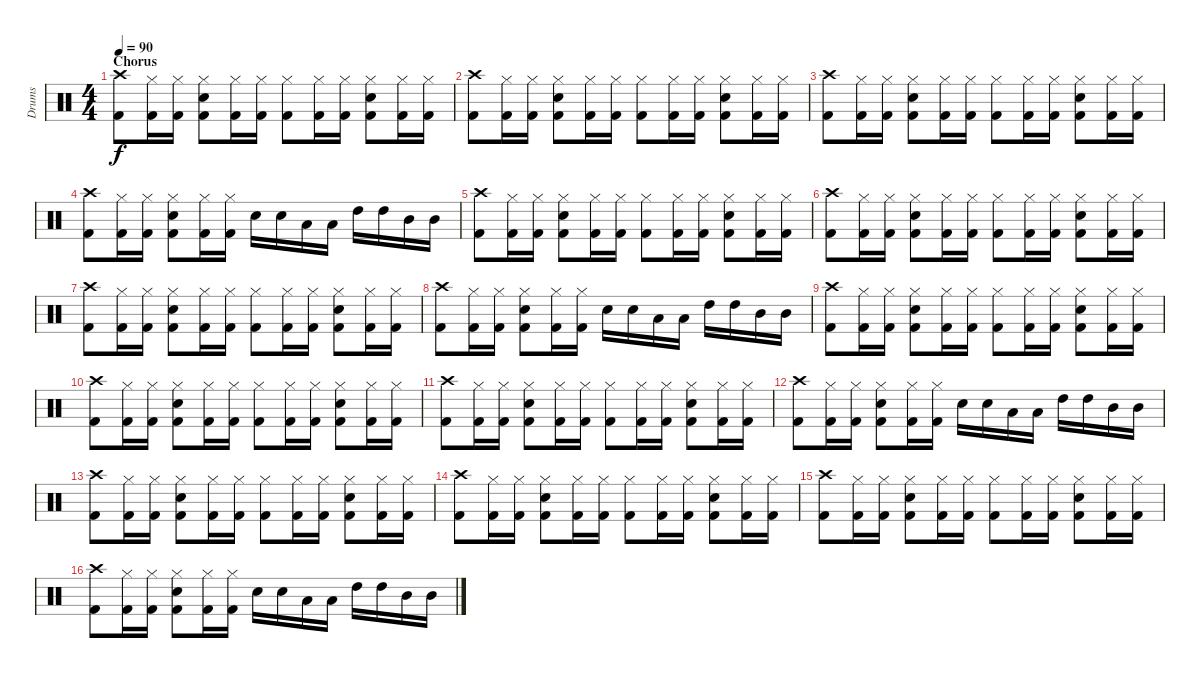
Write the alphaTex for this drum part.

\track ("Drums" "Drums") {instrument percussion}
\staff {score}
\articulation defaults
\ts (4 4)
\section ("" "Chorus")
\tempo 90
\clef neutral
\ks c
("Crash high (hit)" "Kick (hit) 2").8{dy f} ("Hi-Hat (closed)" "Kick (hit) 2").16 ("Hi-Hat (closed)" "Kick (hit) 2").16 ("Hi-Hat (closed)" "Kick (hit) 2" "Electric Snare (hit)").8 ("Hi-Hat (closed)" "Kick (hit) 2").16 ("Hi-Hat (closed)" "Kick (hit) 2").16 ("Hi-Hat (closed)" "Kick (hit) 2").8 ("Hi-Hat (closed)" "Kick (hit) 2").16 ("Hi-Hat (closed)" "Kick (hit) 2").16 ("Hi-Hat (closed)" "Kick (hit) 2" "Electric Snare (hit)").8 ("Hi-Hat (closed)" "Kick (hit) 2").16 ("Hi-Hat (closed)" "Kick (hit) 2").16 |
("Crash high (hit)" "Kick (hit) 2").8 ("Hi-Hat (closed)" "Kick (hit) 2").16 ("Hi-Hat (closed)" "Kick (hit) 2").16 ("Hi-Hat (closed)" "Kick (hit) 2" "Electric Snare (hit)").8 ("Hi-Hat (closed)" "Kick (hit) 2").16 ("Hi-Hat (closed)" "Kick (hit) 2").16 ("Hi-Hat (closed)" "Kick (hit) 2").8 ("Hi-Hat (closed)" "Kick (hit) 2").16 ("Hi-Hat (closed)" "Kick (hit) 2").16 ("Hi-Hat (closed)" "Kick (hit) 2" "Electric Snare (hit)").8 ("Hi-Hat (closed)" "Kick (hit) 2").16 ("Hi-Hat (closed)" "Kick (hit) 2").16 |
("Crash high (hit)" "Kick (hit) 2").8 ("Hi-Hat (closed)" "Kick (hit) 2").16 ("Hi-Hat (closed)" "Kick (hit) 2").16 ("Hi-Hat (closed)" "Kick (hit) 2" "Electric Snare (hit)").8 ("Hi-Hat (closed)" "Kick (hit) 2").16 ("Hi-Hat (closed)" "Kick (hit) 2").16 ("Hi-Hat (closed)" "Kick (hit) 2").8 ("Hi-Hat (closed)" "Kick (hit) 2").16 ("Hi-Hat (closed)" "Kick (hit) 2").16 ("Hi-Hat (closed)" "Kick (hit) 2" "Electric Snare (hit)").8 ("Hi-Hat (closed)" "Kick (hit) 2").16 ("Hi-Hat (closed)" "Kick (hit) 2").16 |
("Crash high (hit)" "Kick (hit) 2").8 ("Hi-Hat (closed)" "Kick (hit) 2").16 ("Hi-Hat (closed)" "Kick (hit) 2").16 ("Hi-Hat (closed)" "Kick (hit) 2" "Electric Snare (hit)").8 ("Hi-Hat (closed)" "Kick (hit) 2").16 ("Hi-Hat (closed)" "Kick (hit) 2").16 "Electric Snare (hit)".16 "Electric Snare (hit)".16 "Low Tom (hit)".16 "Low Tom (hit)".16 "High Tom (hit)".16 "High Tom (hit)".16 "Mid Tom (hit)".16 "Mid Tom (hit)".16 |
("Crash high (hit)" "Kick (hit) 2").8 ("Hi-Hat (closed)" "Kick (hit) 2").16 ("Hi-Hat (closed)" "Kick (hit) 2").16 ("Hi-Hat (closed)" "Kick (hit) 2" "Electric Snare (hit)").8 ("Hi-Hat (closed)" "Kick (hit) 2").16 ("Hi-Hat (closed)" "Kick (hit) 2").16 ("Hi-Hat (closed)" "Kick (hit) 2").8 ("Hi-Hat (closed)" "Kick (hit) 2").16 ("Hi-Hat (closed)" "Kick (hit) 2").16 ("Hi-Hat (closed)" "Kick (hit) 2" "Electric Snare (hit)").8 ("Hi-Hat (closed)" "Kick (hit) 2").16 ("Hi-Hat (closed)" "Kick (hit) 2").16 |
("Crash high (hit)" "Kick (hit) 2").8 ("Hi-Hat (closed)" "Kick (hit) 2").16 ("Hi-Hat (closed)" "Kick (hit) 2").16 ("Hi-Hat (closed)" "Kick (hit) 2" "Electric Snare (hit)").8 ("Hi-Hat (closed)" "Kick (hit) 2").16 ("Hi-Hat (closed)" "Kick (hit) 2").16 ("Hi-Hat (closed)" "Kick (hit) 2").8 ("Hi-Hat (closed)" "Kick (hit) 2").16 ("Hi-Hat (closed)" "Kick (hit) 2").16 ("Hi-Hat (closed)" "Kick (hit) 2" "Electric Snare (hit)").8 ("Hi-Hat (closed)" "Kick (hit) 2").16 ("Hi-Hat (closed)" "Kick (hit) 2").16 |
("Crash high (hit)" "Kick (hit) 2").8 ("Hi-Hat (closed)" "Kick (hit) 2").16 ("Hi-Hat (closed)" "Kick (hit) 2").16 ("Hi-Hat (closed)" "Kick (hit) 2" "Electric Snare (hit)").8 ("Hi-Hat (closed)" "Kick (hit) 2").16 ("Hi-Hat (closed)" "Kick (hit) 2").16 ("Hi-Hat (closed)" "Kick (hit) 2").8 ("Hi-Hat (closed)" "Kick (hit) 2").16 ("Hi-Hat (closed)" "Kick (hit) 2").16 ("Hi-Hat (closed)" "Kick (hit) 2" "Electric Snare (hit)").8 ("Hi-Hat (closed)" "Kick (hit) 2").16 ("Hi-Hat (closed)" "Kick (hit) 2").16 |
("Crash high (hit)" "Kick (hit) 2").8 ("Hi-Hat (closed)" "Kick (hit) 2").16 ("Hi-Hat (closed)" "Kick (hit) 2").16 ("Hi-Hat (closed)" "Kick (hit) 2" "Electric Snare (hit)").8 ("Hi-Hat (closed)" "Kick (hit) 2").16 ("Hi-Hat (closed)" "Kick (hit) 2").16 "Electric Snare (hit)".16 "Electric Snare (hit)".16 "Low Tom (hit)".16 "Low Tom (hit)".16 "High Tom (hit)".16 "High Tom (hit)".16 "Mid Tom (hit)".16 "Mid Tom (hit)".16 |
("Crash high (hit)" "Kick (hit) 2").8 ("Hi-Hat (closed)" "Kick (hit) 2").16 ("Hi-Hat (closed)" "Kick (hit) 2").16 ("Hi-Hat (closed)" "Kick (hit) 2" "Electric Snare (hit)").8 ("Hi-Hat (closed)" "Kick (hit) 2").16 ("Hi-Hat (closed)" "Kick (hit) 2").16 ("Hi-Hat (closed)" "Kick (hit) 2").8 ("Hi-Hat (closed)" "Kick (hit) 2").16 ("Hi-Hat (closed)" "Kick (hit) 2").16 ("Hi-Hat (closed)" "Kick (hit) 2" "Electric Snare (hit)").8 ("Hi-Hat (closed)" "Kick (hit) 2").16 ("Hi-Hat (closed)" "Kick (hit) 2").16 |
("Crash high (hit)" "Kick (hit) 2").8 ("Hi-Hat (closed)" "Kick (hit) 2").16 ("Hi-Hat (closed)" "Kick (hit) 2").16 ("Hi-Hat (closed)" "Kick (hit) 2" "Electric Snare (hit)").8 ("Hi-Hat (closed)" "Kick (hit) 2").16 ("Hi-Hat (closed)" "Kick (hit) 2").16 ("Hi-Hat (closed)" "Kick (hit) 2").8 ("Hi-Hat (closed)" "Kick (hit) 2").16 ("Hi-Hat (closed)" "Kick (hit) 2").16 ("Hi-Hat (closed)" "Kick (hit) 2" "Electric Snare (hit)").8 ("Hi-Hat (closed)" "Kick (hit) 2").16 ("Hi-Hat (closed)" "Kick (hit) 2").16 |
("Crash high (hit)" "Kick (hit) 2").8 ("Hi-Hat (closed)" "Kick (hit) 2").16 ("Hi-Hat (closed)" "Kick (hit) 2").16 ("Hi-Hat (closed)" "Kick (hit) 2" "Electric Snare (hit)").8 ("Hi-Hat (closed)" "Kick (hit) 2").16 ("Hi-Hat (closed)" "Kick (hit) 2").16 ("Hi-Hat (closed)" "Kick (hit) 2").8 ("Hi-Hat (closed)" "Kick (hit) 2").16 ("Hi-Hat (closed)" "Kick (hit) 2").16 ("Hi-Hat (closed)" "Kick (hit) 2" "Electric Snare (hit)").8 ("Hi-Hat (closed)" "Kick (hit) 2").16 ("Hi-Hat (closed)" "Kick (hit) 2").16 |
("Crash high (hit)" "Kick (hit) 2").8 ("Hi-Hat (closed)" "Kick (hit) 2").16 ("Hi-Hat (closed)" "Kick (hit) 2").16 ("Hi-Hat (closed)" "Kick (hit) 2" "Electric Snare (hit)").8 ("Hi-Hat (closed)" "Kick (hit) 2").16 ("Hi-Hat (closed)" "Kick (hit) 2").16 "Electric Snare (hit)".16 "Electric Snare (hit)".16 "Low Tom (hit)".16 "Low Tom (hit)".16 "High Tom (hit)".16 "High Tom (hit)".16 "Mid Tom (hit)".16 "Mid Tom (hit)".16 |
("Crash high (hit)" "Kick (hit) 2").8 ("Hi-Hat (closed)" "Kick (hit) 2").16 ("Hi-Hat (closed)" "Kick (hit) 2").16 ("Hi-Hat (closed)" "Kick (hit) 2" "Electric Snare (hit)").8 ("Hi-Hat (closed)" "Kick (hit) 2").16 ("Hi-Hat (closed)" "Kick (hit) 2").16 ("Hi-Hat (closed)" "Kick (hit) 2").8 ("Hi-Hat (closed)" "Kick (hit) 2").16 ("Hi-Hat (closed)" "Kick (hit) 2").16 ("Hi-Hat (closed)" "Kick (hit) 2" "Electric Snare (hit)").8 ("Hi-Hat (closed)" "Kick (hit) 2").16 ("Hi-Hat (closed)" "Kick (hit) 2").16 |
("Crash high (hit)" "Kick (hit) 2").8 ("Hi-Hat (closed)" "Kick (hit) 2").16 ("Hi-Hat (closed)" "Kick (hit) 2").16 ("Hi-Hat (closed)" "Kick (hit) 2" "Electric Snare (hit)").8 ("Hi-Hat (closed)" "Kick (hit) 2").16 ("Hi-Hat (closed)" "Kick (hit) 2").16 ("Hi-Hat (closed)" "Kick (hit) 2").8 ("Hi-Hat (closed)" "Kick (hit) 2").16 ("Hi-Hat (closed)" "Kick (hit) 2").16 ("Hi-Hat (closed)" "Kick (hit) 2" "Electric Snare (hit)").8 ("Hi-Hat (closed)" "Kick (hit) 2").16 ("Hi-Hat (closed)" "Kick (hit) 2").16 |
("Crash high (hit)" "Kick (hit) 2").8 ("Hi-Hat (closed)" "Kick (hit) 2").16 ("Hi-Hat (closed)" "Kick (hit) 2").16 ("Hi-Hat (closed)" "Kick (hit) 2" "Electric Snare (hit)").8 ("Hi-Hat (closed)" "Kick (hit) 2").16 ("Hi-Hat (closed)" "Kick (hit) 2").16 ("Hi-Hat (closed)" "Kick (hit) 2").8 ("Hi-Hat (closed)" "Kick (hit) 2").16 ("Hi-Hat (closed)" "Kick (hit) 2").16 ("Hi-Hat (closed)" "Kick (hit) 2" "Electric Snare (hit)").8 ("Hi-Hat (closed)" "Kick (hit) 2").16 ("Hi-Hat (closed)" "Kick (hit) 2").16 |
("Crash high (hit)" "Kick (hit) 2").8 ("Hi-Hat (closed)" "Kick (hit) 2").16 ("Hi-Hat (closed)" "Kick (hit) 2").16 ("Hi-Hat (closed)" "Kick (hit) 2" "Electric Snare (hit)").8 ("Hi-Hat (closed)" "Kick (hit) 2").16 ("Hi-Hat (closed)" "Kick (hit) 2").16 "Electric Snare (hit)".16 "Electric Snare (hit)".16 "Low Tom (hit)".16 "Low Tom (hit)".16 "High Tom (hit)".16 "High Tom (hit)".16 "Mid Tom (hit)".16 "Mid Tom (hit)".16
